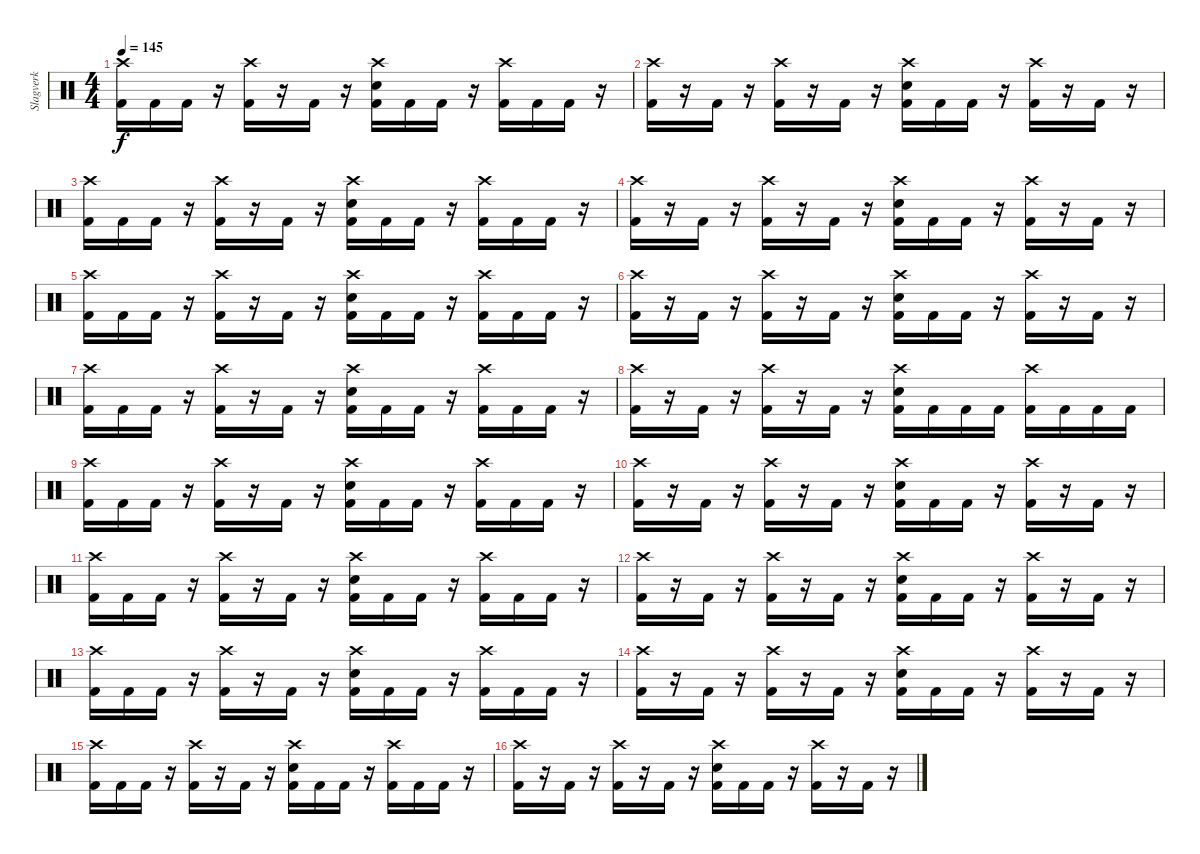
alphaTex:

\track ("Slagverk" "Slagverk") {instrument percussion}
\staff {score}
\articulation defaults
\ts (4 4)
\tempo 145
\clef neutral
\ks c
("Crash high (hit)" "Kick (hit) 2").16{dy f} "Kick (hit) 2".16 "Kick (hit) 2".16 r.16 ("Crash high (hit)" "Kick (hit) 2").16 r.16 "Kick (hit) 2".16 r.16 ("Crash high (hit)" "Kick (hit) 2" "Electric Snare (hit)").16 "Kick (hit) 2".16 "Kick (hit) 2".16 r.16 ("Crash high (hit)" "Kick (hit) 2").16 "Kick (hit) 2".16 "Kick (hit) 2".16 r.16 |
("Crash high (hit)" "Kick (hit) 2").16 r.16 "Kick (hit) 2".16 r.16 ("Crash high (hit)" "Kick (hit) 2").16 r.16 "Kick (hit) 2".16 r.16 ("Crash high (hit)" "Kick (hit) 2" "Electric Snare (hit)").16 "Kick (hit) 2".16 "Kick (hit) 2".16 r.16 ("Crash high (hit)" "Kick (hit) 2").16 r.16 "Kick (hit) 2".16 r.16 |
("Crash high (hit)" "Kick (hit) 2").16 "Kick (hit) 2".16 "Kick (hit) 2".16 r.16 ("Crash high (hit)" "Kick (hit) 2").16 r.16 "Kick (hit) 2".16 r.16 ("Crash high (hit)" "Kick (hit) 2" "Electric Snare (hit)").16 "Kick (hit) 2".16 "Kick (hit) 2".16 r.16 ("Crash high (hit)" "Kick (hit) 2").16 "Kick (hit) 2".16 "Kick (hit) 2".16 r.16 |
("Crash high (hit)" "Kick (hit) 2").16 r.16 "Kick (hit) 2".16 r.16 ("Crash high (hit)" "Kick (hit) 2").16 r.16 "Kick (hit) 2".16 r.16 ("Crash high (hit)" "Kick (hit) 2" "Electric Snare (hit)").16 "Kick (hit) 2".16 "Kick (hit) 2".16 r.16 ("Crash high (hit)" "Kick (hit) 2").16 r.16 "Kick (hit) 2".16 r.16 |
("Crash high (hit)" "Kick (hit) 2").16 "Kick (hit) 2".16 "Kick (hit) 2".16 r.16 ("Crash high (hit)" "Kick (hit) 2").16 r.16 "Kick (hit) 2".16 r.16 ("Crash high (hit)" "Kick (hit) 2" "Electric Snare (hit)").16 "Kick (hit) 2".16 "Kick (hit) 2".16 r.16 ("Crash high (hit)" "Kick (hit) 2").16 "Kick (hit) 2".16 "Kick (hit) 2".16 r.16 |
("Crash high (hit)" "Kick (hit) 2").16 r.16 "Kick (hit) 2".16 r.16 ("Crash high (hit)" "Kick (hit) 2").16 r.16 "Kick (hit) 2".16 r.16 ("Crash high (hit)" "Kick (hit) 2" "Electric Snare (hit)").16 "Kick (hit) 2".16 "Kick (hit) 2".16 r.16 ("Crash high (hit)" "Kick (hit) 2").16 r.16 "Kick (hit) 2".16 r.16 |
("Crash high (hit)" "Kick (hit) 2").16 "Kick (hit) 2".16 "Kick (hit) 2".16 r.16 ("Crash high (hit)" "Kick (hit) 2").16 r.16 "Kick (hit) 2".16 r.16 ("Crash high (hit)" "Kick (hit) 2" "Electric Snare (hit)").16 "Kick (hit) 2".16 "Kick (hit) 2".16 r.16 ("Crash high (hit)" "Kick (hit) 2").16 "Kick (hit) 2".16 "Kick (hit) 2".16 r.16 |
("Crash high (hit)" "Kick (hit) 2").16 r.16 "Kick (hit) 2".16 r.16 ("Crash high (hit)" "Kick (hit) 2").16 r.16 "Kick (hit) 2".16 r.16 ("Crash high (hit)" "Kick (hit) 2" "Electric Snare (hit)").16 "Kick (hit) 2".16 "Kick (hit) 2".16 "Kick (hit) 2".16 ("Crash high (hit)" "Kick (hit) 2").16 "Kick (hit) 2".16 "Kick (hit) 2".16 "Kick (hit) 2".16 |
("Crash high (hit)" "Kick (hit) 2").16 "Kick (hit) 2".16 "Kick (hit) 2".16 r.16 ("Crash high (hit)" "Kick (hit) 2").16 r.16 "Kick (hit) 2".16 r.16 ("Crash high (hit)" "Kick (hit) 2" "Electric Snare (hit)").16 "Kick (hit) 2".16 "Kick (hit) 2".16 r.16 ("Crash high (hit)" "Kick (hit) 2").16 "Kick (hit) 2".16 "Kick (hit) 2".16 r.16 |
("Crash high (hit)" "Kick (hit) 2").16 r.16 "Kick (hit) 2".16 r.16 ("Crash high (hit)" "Kick (hit) 2").16 r.16 "Kick (hit) 2".16 r.16 ("Crash high (hit)" "Kick (hit) 2" "Electric Snare (hit)").16 "Kick (hit) 2".16 "Kick (hit) 2".16 r.16 ("Crash high (hit)" "Kick (hit) 2").16 r.16 "Kick (hit) 2".16 r.16 |
("Crash high (hit)" "Kick (hit) 2").16 "Kick (hit) 2".16 "Kick (hit) 2".16 r.16 ("Crash high (hit)" "Kick (hit) 2").16 r.16 "Kick (hit) 2".16 r.16 ("Crash high (hit)" "Kick (hit) 2" "Electric Snare (hit)").16 "Kick (hit) 2".16 "Kick (hit) 2".16 r.16 ("Crash high (hit)" "Kick (hit) 2").16 "Kick (hit) 2".16 "Kick (hit) 2".16 r.16 |
("Crash high (hit)" "Kick (hit) 2").16 r.16 "Kick (hit) 2".16 r.16 ("Crash high (hit)" "Kick (hit) 2").16 r.16 "Kick (hit) 2".16 r.16 ("Crash high (hit)" "Kick (hit) 2" "Electric Snare (hit)").16 "Kick (hit) 2".16 "Kick (hit) 2".16 r.16 ("Crash high (hit)" "Kick (hit) 2").16 r.16 "Kick (hit) 2".16 r.16 |
("Crash high (hit)" "Kick (hit) 2").16 "Kick (hit) 2".16 "Kick (hit) 2".16 r.16 ("Crash high (hit)" "Kick (hit) 2").16 r.16 "Kick (hit) 2".16 r.16 ("Crash high (hit)" "Kick (hit) 2" "Electric Snare (hit)").16 "Kick (hit) 2".16 "Kick (hit) 2".16 r.16 ("Crash high (hit)" "Kick (hit) 2").16 "Kick (hit) 2".16 "Kick (hit) 2".16 r.16 |
("Crash high (hit)" "Kick (hit) 2").16 r.16 "Kick (hit) 2".16 r.16 ("Crash high (hit)" "Kick (hit) 2").16 r.16 "Kick (hit) 2".16 r.16 ("Crash high (hit)" "Kick (hit) 2" "Electric Snare (hit)").16 "Kick (hit) 2".16 "Kick (hit) 2".16 r.16 ("Crash high (hit)" "Kick (hit) 2").16 r.16 "Kick (hit) 2".16 r.16 |
("Crash high (hit)" "Kick (hit) 2").16 "Kick (hit) 2".16 "Kick (hit) 2".16 r.16 ("Crash high (hit)" "Kick (hit) 2").16 r.16 "Kick (hit) 2".16 r.16 ("Crash high (hit)" "Kick (hit) 2" "Electric Snare (hit)").16 "Kick (hit) 2".16 "Kick (hit) 2".16 r.16 ("Crash high (hit)" "Kick (hit) 2").16 "Kick (hit) 2".16 "Kick (hit) 2".16 r.16 |
("Crash high (hit)" "Kick (hit) 2").16 r.16 "Kick (hit) 2".16 r.16 ("Crash high (hit)" "Kick (hit) 2").16 r.16 "Kick (hit) 2".16 r.16 ("Crash high (hit)" "Kick (hit) 2" "Electric Snare (hit)").16 "Kick (hit) 2".16 "Kick (hit) 2".16 r.16 ("Crash high (hit)" "Kick (hit) 2").16 r.16 "Kick (hit) 2".16 r.16
